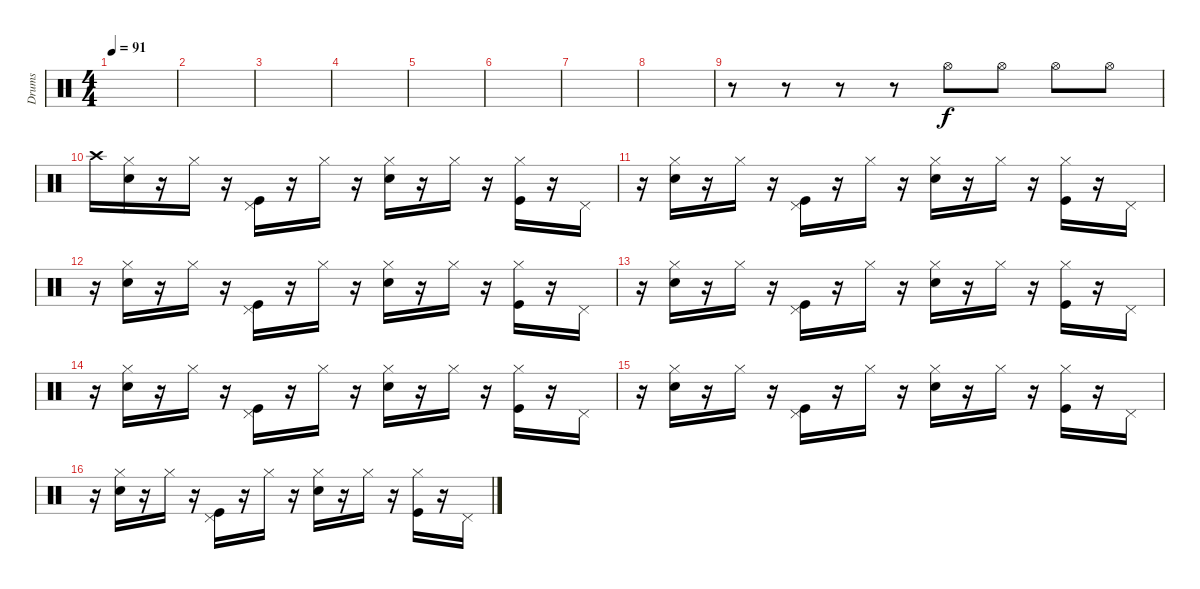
\track ("Drums" "Drums") {instrument percussion}
\staff {score}
\articulation defaults
\ts (4 4)
\tempo 91
\clef neutral
\ks c
|
|
|
|
|
|
|
|
r.8 r.8 r.8 r.8 "Hi-Hat (open)".8 "Hi-Hat (open)".8 "Hi-Hat (open)".8 "Hi-Hat (open)".8 |
"Crash high (hit)".16 ("Hi-Hat (closed)" "Snare (hit) 2").16 r.16 "Hi-Hat (closed)".16 r.16 ("Pedal Hi-Hat (hit)" "Kick (hit)").16 r.16 "Hi-Hat (closed)".16 r.16 ("Hi-Hat (closed)" "Snare (hit) 2").16 r.16 "Hi-Hat (closed)".16 r.16 ("Hi-Hat (closed)" "Kick (hit)").16 r.16 "Pedal Hi-Hat (hit)".16 |
r.16 ("Hi-Hat (closed)" "Snare (hit) 2").16 r.16 "Hi-Hat (closed)".16 r.16 ("Pedal Hi-Hat (hit)" "Kick (hit)").16 r.16 "Hi-Hat (closed)".16 r.16 ("Hi-Hat (closed)" "Snare (hit) 2").16 r.16 "Hi-Hat (closed)".16 r.16 ("Hi-Hat (closed)" "Kick (hit)").16 r.16 "Pedal Hi-Hat (hit)".16 |
r.16 ("Hi-Hat (closed)" "Snare (hit) 2").16 r.16 "Hi-Hat (closed)".16 r.16 ("Pedal Hi-Hat (hit)" "Kick (hit)").16 r.16 "Hi-Hat (closed)".16 r.16 ("Hi-Hat (closed)" "Snare (hit) 2").16 r.16 "Hi-Hat (closed)".16 r.16 ("Hi-Hat (closed)" "Kick (hit)").16 r.16 "Pedal Hi-Hat (hit)".16 |
r.16 ("Hi-Hat (closed)" "Snare (hit) 2").16 r.16 "Hi-Hat (closed)".16 r.16 ("Pedal Hi-Hat (hit)" "Kick (hit)").16 r.16 "Hi-Hat (closed)".16 r.16 ("Hi-Hat (closed)" "Snare (hit) 2").16 r.16 "Hi-Hat (closed)".16 r.16 ("Hi-Hat (closed)" "Kick (hit)").16 r.16 "Pedal Hi-Hat (hit)".16 |
r.16 ("Hi-Hat (closed)" "Snare (hit) 2").16 r.16 "Hi-Hat (closed)".16 r.16 ("Pedal Hi-Hat (hit)" "Kick (hit)").16 r.16 "Hi-Hat (closed)".16 r.16 ("Hi-Hat (closed)" "Snare (hit) 2").16 r.16 "Hi-Hat (closed)".16 r.16 ("Hi-Hat (closed)" "Kick (hit)").16 r.16 "Pedal Hi-Hat (hit)".16 |
r.16 ("Hi-Hat (closed)" "Snare (hit) 2").16 r.16 "Hi-Hat (closed)".16 r.16 ("Pedal Hi-Hat (hit)" "Kick (hit)").16 r.16 "Hi-Hat (closed)".16 r.16 ("Hi-Hat (closed)" "Snare (hit) 2").16 r.16 "Hi-Hat (closed)".16 r.16 ("Hi-Hat (closed)" "Kick (hit)").16 r.16 "Pedal Hi-Hat (hit)".16 |
r.16 ("Hi-Hat (closed)" "Snare (hit) 2").16 r.16 "Hi-Hat (closed)".16 r.16 ("Pedal Hi-Hat (hit)" "Kick (hit)").16 r.16 "Hi-Hat (closed)".16 r.16 ("Hi-Hat (closed)" "Snare (hit) 2").16 r.16 "Hi-Hat (closed)".16 r.16 ("Hi-Hat (closed)" "Kick (hit)").16 r.16 "Pedal Hi-Hat (hit)".16
